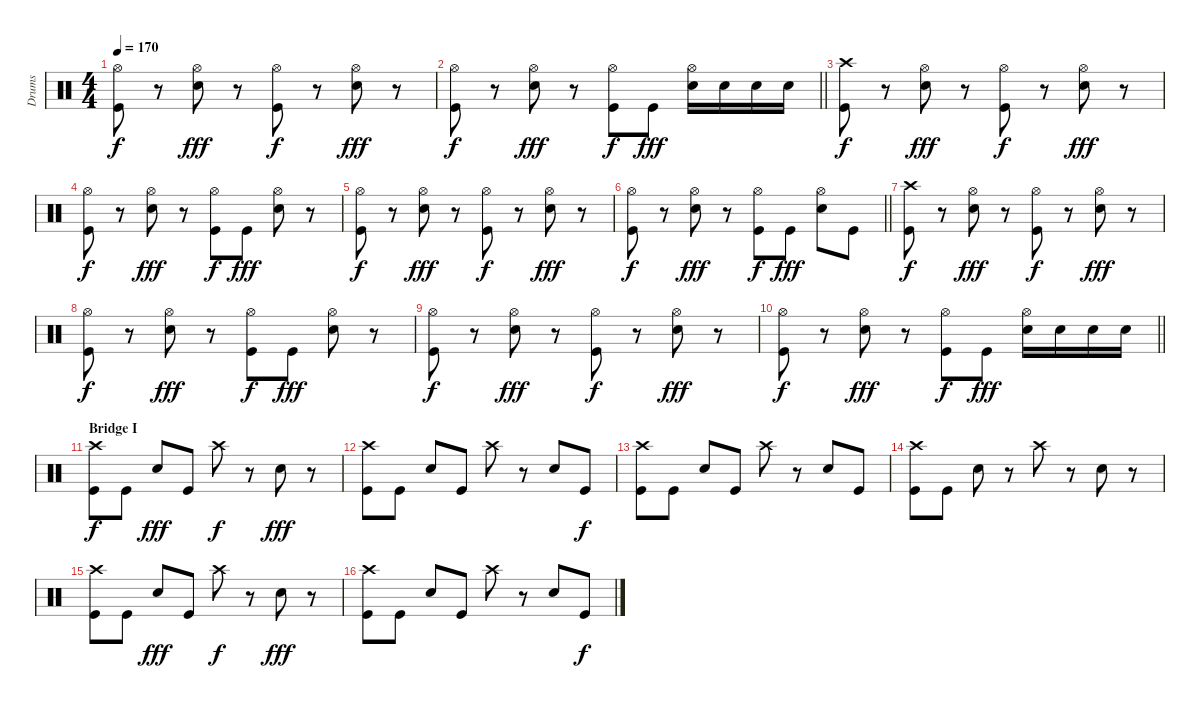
\track ("Drums" "Drums") {instrument percussion}
\staff {score}
\articulation defaults
\ts (4 4)
\tempo 170
\clef neutral
\ks c
("Hi-Hat (open)" "Kick (hit)").8{dy f} r.8 ("Hi-Hat (open)" "Snare (hit) 2").8{dy fff} r.8 ("Hi-Hat (open)" "Kick (hit)").8{dy f} r.8 ("Hi-Hat (open)" "Snare (hit) 2").8{dy fff} r.8 |
\barLineRight lightlight
("Hi-Hat (open)" "Kick (hit)").8{dy f} r.8 ("Hi-Hat (open)" "Snare (hit) 2").8{dy fff} r.8 ("Hi-Hat (open)" "Kick (hit)").8{dy f} "Kick (hit)".8{dy fff} ("Hi-Hat (open)" "Snare (hit) 2").16 "Snare (hit) 2".16 "Snare (hit) 2".16 "Snare (hit) 2".16 |
("Crash high (hit)" "Kick (hit)").8{dy f} r.8 ("Hi-Hat (open)" "Snare (hit) 2").8{dy fff} r.8 ("Hi-Hat (open)" "Kick (hit)").8{dy f} r.8 ("Hi-Hat (open)" "Snare (hit) 2").8{dy fff} r.8 |
("Hi-Hat (open)" "Kick (hit)").8{dy f} r.8 ("Hi-Hat (open)" "Snare (hit) 2").8{dy fff} r.8 ("Hi-Hat (open)" "Kick (hit)").8{dy f} "Kick (hit)".8{dy fff} ("Hi-Hat (open)" "Snare (hit) 2").8 r.8 |
("Hi-Hat (open)" "Kick (hit)").8{dy f} r.8 ("Hi-Hat (open)" "Snare (hit) 2").8{dy fff} r.8 ("Hi-Hat (open)" "Kick (hit)").8{dy f} r.8 ("Hi-Hat (open)" "Snare (hit) 2").8{dy fff} r.8 |
\barLineRight lightlight
("Hi-Hat (open)" "Kick (hit)").8{dy f} r.8 ("Hi-Hat (open)" "Snare (hit) 2").8{dy fff} r.8 ("Hi-Hat (open)" "Kick (hit)").8{dy f} "Kick (hit)".8{dy fff} ("Hi-Hat (open)" "Snare (hit) 2").8 "Kick (hit)".8 |
("Crash high (hit)" "Kick (hit)").8{dy f} r.8 ("Hi-Hat (open)" "Snare (hit) 2").8{dy fff} r.8 ("Hi-Hat (open)" "Kick (hit)").8{dy f} r.8 ("Hi-Hat (open)" "Snare (hit) 2").8{dy fff} r.8 |
("Hi-Hat (open)" "Kick (hit)").8{dy f} r.8 ("Hi-Hat (open)" "Snare (hit) 2").8{dy fff} r.8 ("Hi-Hat (open)" "Kick (hit)").8{dy f} "Kick (hit)".8{dy fff} ("Hi-Hat (open)" "Snare (hit) 2").8 r.8 |
("Hi-Hat (open)" "Kick (hit)").8{dy f} r.8 ("Hi-Hat (open)" "Snare (hit) 2").8{dy fff} r.8 ("Hi-Hat (open)" "Kick (hit)").8{dy f} r.8 ("Hi-Hat (open)" "Snare (hit) 2").8{dy fff} r.8 |
\barLineRight lightlight
("Hi-Hat (open)" "Kick (hit)").8{dy f} r.8 ("Hi-Hat (open)" "Snare (hit) 2").8{dy fff} r.8 ("Hi-Hat (open)" "Kick (hit)").8{dy f} "Kick (hit)".8{dy fff} ("Hi-Hat (open)" "Snare (hit) 2").16 "Snare (hit) 2".16 "Snare (hit) 2".16 "Snare (hit) 2".16 |
\section ("" "Bridge I")
("Crash high (hit)" "Kick (hit)").8{dy f} "Kick (hit)".8 "Snare (hit) 2".8{dy fff} "Kick (hit)".8 "Crash high (hit)".8{dy f} r.8 "Snare (hit) 2".8{dy fff} r.8 |
("Crash high (hit)" "Kick (hit)").8 "Kick (hit)".8 "Snare (hit) 2".8 "Kick (hit)".8 "Crash high (hit)".8 r.8 "Snare (hit) 2".8 "Kick (hit)".8{dy f} |
("Crash high (hit)" "Kick (hit)").8 "Kick (hit)".8 "Snare (hit) 2".8 "Kick (hit)".8 "Crash high (hit)".8 r.8 "Snare (hit) 2".8 "Kick (hit)".8 |
("Crash high (hit)" "Kick (hit)").8 "Kick (hit)".8 "Snare (hit) 2".8 r.8 "Crash high (hit)".8 r.8 "Snare (hit) 2".8 r.8 |
("Crash high (hit)" "Kick (hit)").8 "Kick (hit)".8 "Snare (hit) 2".8{dy fff} "Kick (hit)".8 "Crash high (hit)".8{dy f} r.8 "Snare (hit) 2".8{dy fff} r.8 |
("Crash high (hit)" "Kick (hit)").8 "Kick (hit)".8 "Snare (hit) 2".8 "Kick (hit)".8 "Crash high (hit)".8 r.8 "Snare (hit) 2".8 "Kick (hit)".8{dy f}
